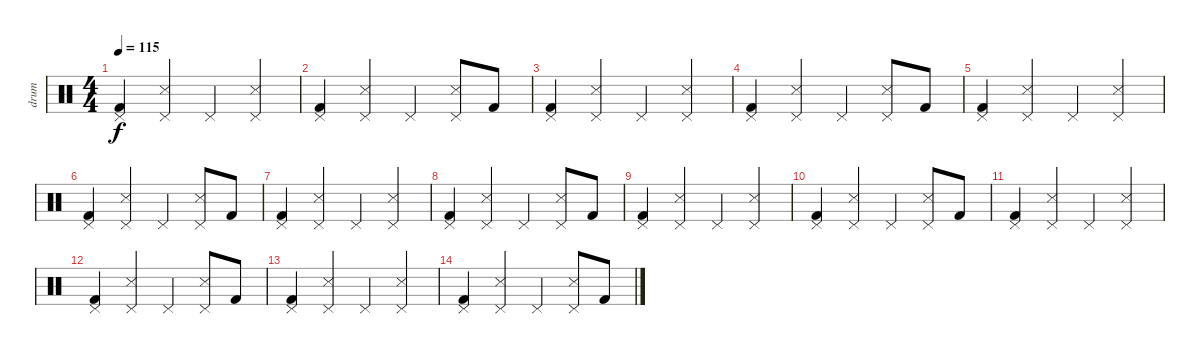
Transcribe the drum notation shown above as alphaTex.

\track ("drum" "drum") {instrument percussion}
\staff {score}
\articulation defaults
\ts (4 4)
\tempo 115
\clef neutral
\ks c
("Pedal Hi-Hat (hit)" "Kick (hit) 2").4{dy f} ("Pedal Hi-Hat (hit)" "Snare (side stick) 3").4 "Pedal Hi-Hat (hit)".4 ("Pedal Hi-Hat (hit)" "Snare (side stick) 3").4 |
("Pedal Hi-Hat (hit)" "Kick (hit) 2").4 ("Pedal Hi-Hat (hit)" "Snare (side stick) 3").4 "Pedal Hi-Hat (hit)".4 ("Pedal Hi-Hat (hit)" "Snare (side stick) 3").8 "Kick (hit) 2".8 |
("Pedal Hi-Hat (hit)" "Kick (hit) 2").4 ("Pedal Hi-Hat (hit)" "Snare (side stick) 3").4 "Pedal Hi-Hat (hit)".4 ("Pedal Hi-Hat (hit)" "Snare (side stick) 3").4 |
("Pedal Hi-Hat (hit)" "Kick (hit) 2").4 ("Pedal Hi-Hat (hit)" "Snare (side stick) 3").4 "Pedal Hi-Hat (hit)".4 ("Pedal Hi-Hat (hit)" "Snare (side stick) 3").8 "Kick (hit) 2".8 |
("Pedal Hi-Hat (hit)" "Kick (hit) 2").4 ("Pedal Hi-Hat (hit)" "Snare (side stick) 3").4 "Pedal Hi-Hat (hit)".4 ("Pedal Hi-Hat (hit)" "Snare (side stick) 3").4 |
("Pedal Hi-Hat (hit)" "Kick (hit) 2").4 ("Pedal Hi-Hat (hit)" "Snare (side stick) 3").4 "Pedal Hi-Hat (hit)".4 ("Pedal Hi-Hat (hit)" "Snare (side stick) 3").8 "Kick (hit) 2".8 |
("Pedal Hi-Hat (hit)" "Kick (hit) 2").4 ("Pedal Hi-Hat (hit)" "Snare (side stick) 3").4 "Pedal Hi-Hat (hit)".4 ("Pedal Hi-Hat (hit)" "Snare (side stick) 3").4 |
("Pedal Hi-Hat (hit)" "Kick (hit) 2").4 ("Pedal Hi-Hat (hit)" "Snare (side stick) 3").4 "Pedal Hi-Hat (hit)".4 ("Pedal Hi-Hat (hit)" "Snare (side stick) 3").8 "Kick (hit) 2".8 |
("Pedal Hi-Hat (hit)" "Kick (hit) 2").4 ("Pedal Hi-Hat (hit)" "Snare (side stick) 3").4 "Pedal Hi-Hat (hit)".4 ("Pedal Hi-Hat (hit)" "Snare (side stick) 3").4 |
("Pedal Hi-Hat (hit)" "Kick (hit) 2").4 ("Pedal Hi-Hat (hit)" "Snare (side stick) 3").4 "Pedal Hi-Hat (hit)".4 ("Pedal Hi-Hat (hit)" "Snare (side stick) 3").8 "Kick (hit) 2".8 |
("Pedal Hi-Hat (hit)" "Kick (hit) 2").4 ("Pedal Hi-Hat (hit)" "Snare (side stick) 3").4 "Pedal Hi-Hat (hit)".4 ("Pedal Hi-Hat (hit)" "Snare (side stick) 3").4 |
("Pedal Hi-Hat (hit)" "Kick (hit) 2").4 ("Pedal Hi-Hat (hit)" "Snare (side stick) 3").4 "Pedal Hi-Hat (hit)".4 ("Pedal Hi-Hat (hit)" "Snare (side stick) 3").8 "Kick (hit) 2".8 |
("Pedal Hi-Hat (hit)" "Kick (hit) 2").4 ("Pedal Hi-Hat (hit)" "Snare (side stick) 3").4 "Pedal Hi-Hat (hit)".4 ("Pedal Hi-Hat (hit)" "Snare (side stick) 3").4 |
("Pedal Hi-Hat (hit)" "Kick (hit) 2").4 ("Pedal Hi-Hat (hit)" "Snare (side stick) 3").4 "Pedal Hi-Hat (hit)".4 ("Pedal Hi-Hat (hit)" "Snare (side stick) 3").8 "Kick (hit) 2".8
